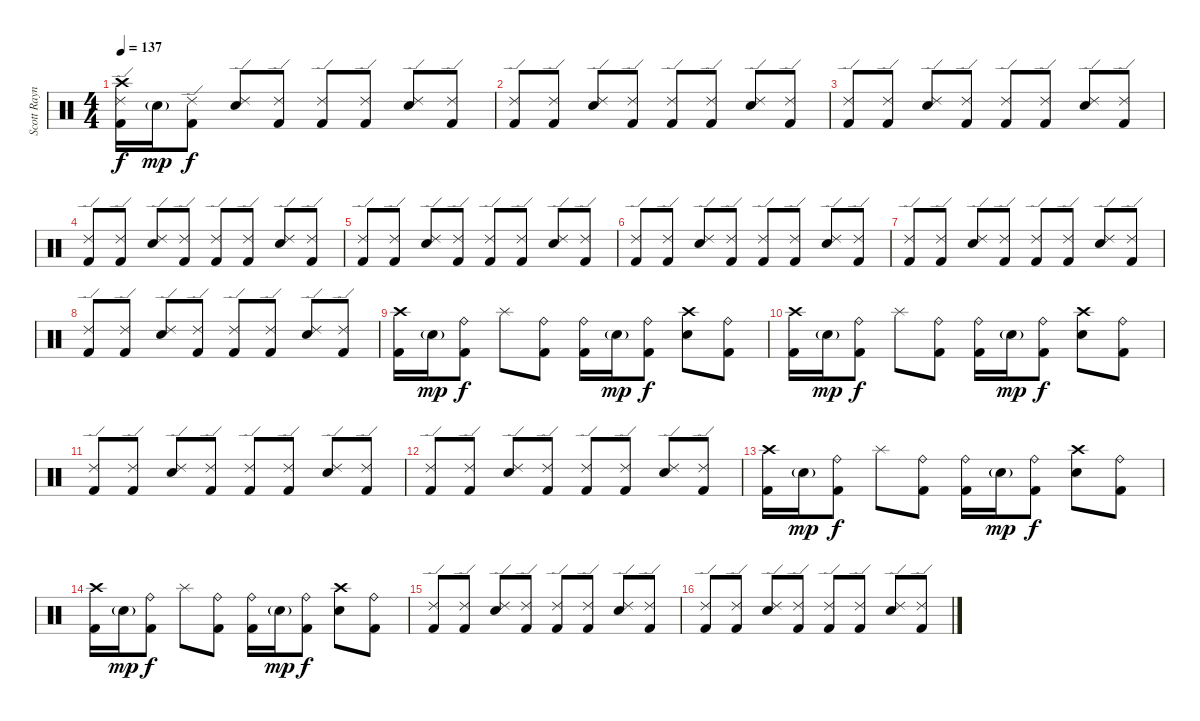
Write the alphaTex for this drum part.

\track ("Scott Raynor" "Scott Rayn") {instrument percussion}
\staff {score}
\articulation defaults
\ts (4 4)
\tempo 137
\clef neutral
\ks c
("Crash high (hit)" "Ride (edge) 2" "Kick (hit) 2").16{dy f} "Snare (hit) 2"{g}.16{dy mp} ("Ride (edge) 2" "Kick (hit) 2").8{dy f} ("Ride (edge) 2" "Snare (hit) 2").8 ("Ride (edge) 2" "Kick (hit) 2").8 ("Ride (edge) 2" "Kick (hit) 2").8 ("Ride (edge) 2" "Kick (hit) 2").8 ("Ride (edge) 2" "Snare (hit) 2").8 ("Ride (edge) 2" "Kick (hit) 2").8 |
("Ride (edge) 2" "Kick (hit) 2").8 ("Ride (edge) 2" "Kick (hit) 2").8 ("Ride (edge) 2" "Snare (hit) 2").8 ("Ride (edge) 2" "Kick (hit) 2").8 ("Ride (edge) 2" "Kick (hit) 2").8 ("Ride (edge) 2" "Kick (hit) 2").8 ("Ride (edge) 2" "Snare (hit) 2").8 ("Ride (edge) 2" "Kick (hit) 2").8 |
("Ride (edge) 2" "Kick (hit) 2").8 ("Ride (edge) 2" "Kick (hit) 2").8 ("Ride (edge) 2" "Snare (hit) 2").8 ("Ride (edge) 2" "Kick (hit) 2").8 ("Ride (edge) 2" "Kick (hit) 2").8 ("Ride (edge) 2" "Kick (hit) 2").8 ("Ride (edge) 2" "Snare (hit) 2").8 ("Ride (edge) 2" "Kick (hit) 2").8 |
("Ride (edge) 2" "Kick (hit) 2").8 ("Ride (edge) 2" "Kick (hit) 2").8 ("Ride (edge) 2" "Snare (hit) 2").8 ("Ride (edge) 2" "Kick (hit) 2").8 ("Ride (edge) 2" "Kick (hit) 2").8 ("Ride (edge) 2" "Kick (hit) 2").8 ("Ride (edge) 2" "Snare (hit) 2").8 ("Ride (edge) 2" "Kick (hit) 2").8 |
("Ride (edge) 2" "Kick (hit) 2").8 ("Ride (edge) 2" "Kick (hit) 2").8 ("Ride (edge) 2" "Snare (hit) 2").8 ("Ride (edge) 2" "Kick (hit) 2").8 ("Ride (edge) 2" "Kick (hit) 2").8 ("Ride (edge) 2" "Kick (hit) 2").8 ("Ride (edge) 2" "Snare (hit) 2").8 ("Ride (edge) 2" "Kick (hit) 2").8 |
("Ride (edge) 2" "Kick (hit) 2").8 ("Ride (edge) 2" "Kick (hit) 2").8 ("Ride (edge) 2" "Snare (hit) 2").8 ("Ride (edge) 2" "Kick (hit) 2").8 ("Ride (edge) 2" "Kick (hit) 2").8 ("Ride (edge) 2" "Kick (hit) 2").8 ("Ride (edge) 2" "Snare (hit) 2").8 ("Ride (edge) 2" "Kick (hit) 2").8 |
("Ride (edge) 2" "Kick (hit) 2").8 ("Ride (edge) 2" "Kick (hit) 2").8 ("Ride (edge) 2" "Snare (hit) 2").8 ("Ride (edge) 2" "Kick (hit) 2").8 ("Ride (edge) 2" "Kick (hit) 2").8 ("Ride (edge) 2" "Kick (hit) 2").8 ("Ride (edge) 2" "Snare (hit) 2").8 ("Ride (edge) 2" "Kick (hit) 2").8 |
("Ride (edge) 2" "Kick (hit) 2").8 ("Ride (edge) 2" "Kick (hit) 2").8 ("Ride (edge) 2" "Snare (hit) 2").8 ("Ride (edge) 2" "Kick (hit) 2").8 ("Ride (edge) 2" "Kick (hit) 2").8 ("Ride (edge) 2" "Kick (hit) 2").8 ("Ride (edge) 2" "Snare (hit) 2").8 ("Ride (edge) 2" "Kick (hit) 2").8 |
("Crash high (hit)" "Kick (hit) 2").16 "Snare (hit) 2"{g}.16{dy mp} ("Ride (bell)" "Kick (hit) 2").8{dy f} "Splash (hit)".8 ("Ride (bell)" "Kick (hit) 2").8 ("Ride (bell)" "Kick (hit) 2").16 "Snare (hit) 2"{g}.16{dy mp} ("Ride (bell)" "Kick (hit) 2").8{dy f} ("Crash high (hit)" "Snare (hit) 2").8 ("Ride (bell)" "Kick (hit) 2").8 |
("Crash high (hit)" "Kick (hit) 2").16 "Snare (hit) 2"{g}.16{dy mp} ("Ride (bell)" "Kick (hit) 2").8{dy f} "Splash (hit)".8 ("Ride (bell)" "Kick (hit) 2").8 ("Ride (bell)" "Kick (hit) 2").16 "Snare (hit) 2"{g}.16{dy mp} ("Ride (bell)" "Kick (hit) 2").8{dy f} ("Crash high (hit)" "Snare (hit) 2").8 ("Ride (bell)" "Kick (hit) 2").8 |
("Ride (edge) 2" "Kick (hit) 2").8 ("Ride (edge) 2" "Kick (hit) 2").8 ("Ride (edge) 2" "Snare (hit) 2").8 ("Ride (edge) 2" "Kick (hit) 2").8 ("Ride (edge) 2" "Kick (hit) 2").8 ("Ride (edge) 2" "Kick (hit) 2").8 ("Ride (edge) 2" "Snare (hit) 2").8 ("Ride (edge) 2" "Kick (hit) 2").8 |
("Ride (edge) 2" "Kick (hit) 2").8 ("Ride (edge) 2" "Kick (hit) 2").8 ("Ride (edge) 2" "Snare (hit) 2").8 ("Ride (edge) 2" "Kick (hit) 2").8 ("Ride (edge) 2" "Kick (hit) 2").8 ("Ride (edge) 2" "Kick (hit) 2").8 ("Ride (edge) 2" "Snare (hit) 2").8 ("Ride (edge) 2" "Kick (hit) 2").8 |
("Crash high (hit)" "Kick (hit) 2").16 "Snare (hit) 2"{g}.16{dy mp} ("Ride (bell)" "Kick (hit) 2").8{dy f} "Splash (hit)".8 ("Ride (bell)" "Kick (hit) 2").8 ("Ride (bell)" "Kick (hit) 2").16 "Snare (hit) 2"{g}.16{dy mp} ("Ride (bell)" "Kick (hit) 2").8{dy f} ("Crash high (hit)" "Snare (hit) 2").8 ("Ride (bell)" "Kick (hit) 2").8 |
("Crash high (hit)" "Kick (hit) 2").16 "Snare (hit) 2"{g}.16{dy mp} ("Ride (bell)" "Kick (hit) 2").8{dy f} "Splash (hit)".8 ("Ride (bell)" "Kick (hit) 2").8 ("Ride (bell)" "Kick (hit) 2").16 "Snare (hit) 2"{g}.16{dy mp} ("Ride (bell)" "Kick (hit) 2").8{dy f} ("Crash high (hit)" "Snare (hit) 2").8 ("Ride (bell)" "Kick (hit) 2").8 |
("Ride (edge) 2" "Kick (hit) 2").8 ("Ride (edge) 2" "Kick (hit) 2").8 ("Ride (edge) 2" "Snare (hit) 2").8 ("Ride (edge) 2" "Kick (hit) 2").8 ("Ride (edge) 2" "Kick (hit) 2").8 ("Ride (edge) 2" "Kick (hit) 2").8 ("Ride (edge) 2" "Snare (hit) 2").8 ("Ride (edge) 2" "Kick (hit) 2").8 |
("Ride (edge) 2" "Kick (hit) 2").8 ("Ride (edge) 2" "Kick (hit) 2").8 ("Ride (edge) 2" "Snare (hit) 2").8 ("Ride (edge) 2" "Kick (hit) 2").8 ("Ride (edge) 2" "Kick (hit) 2").8 ("Ride (edge) 2" "Kick (hit) 2").8 ("Ride (edge) 2" "Snare (hit) 2").8 ("Ride (edge) 2" "Kick (hit) 2").8
